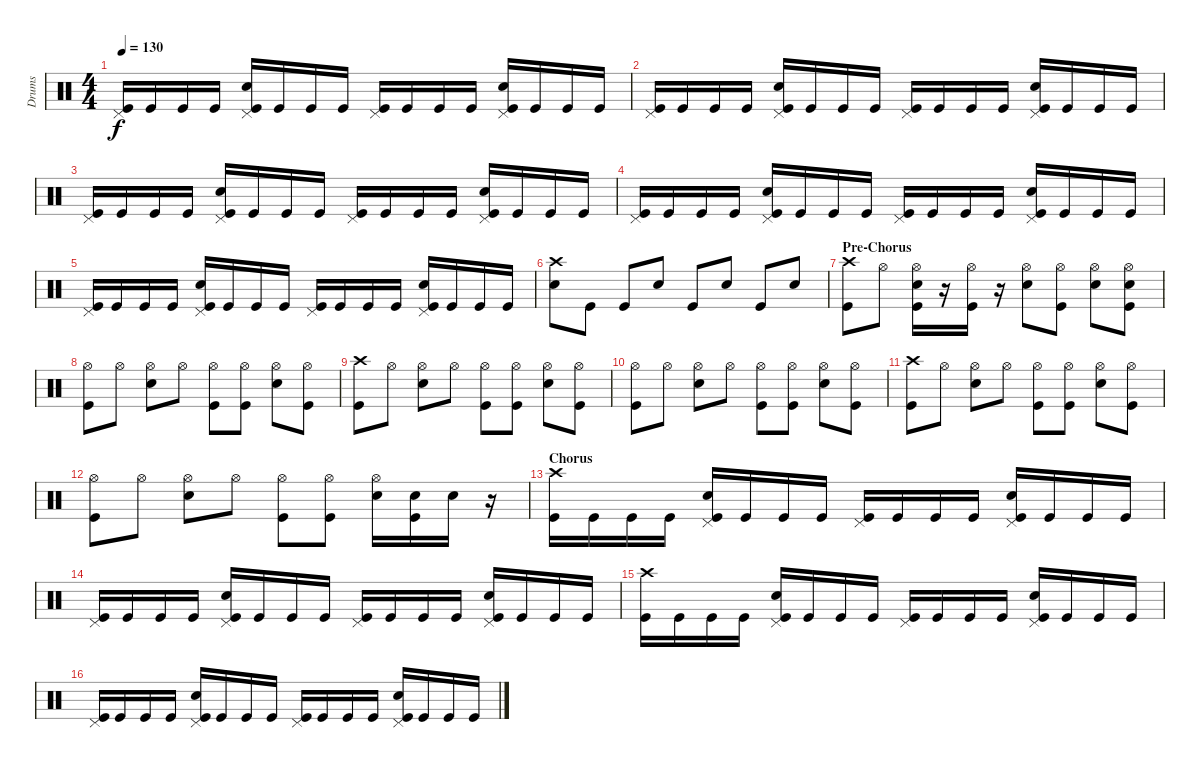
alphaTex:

\track ("Drums" "Drums") {instrument percussion}
\staff {score}
\articulation defaults
\ts (4 4)
\tempo 130
\clef neutral
\ks c
("Pedal Hi-Hat (hit)" "Kick (hit)").16{dy f} "Kick (hit)".16 "Kick (hit)".16 "Kick (hit)".16 ("Pedal Hi-Hat (hit)" "Snare (hit) 2" "Kick (hit)").16 "Kick (hit)".16 "Kick (hit)".16 "Kick (hit)".16 ("Pedal Hi-Hat (hit)" "Kick (hit)").16 "Kick (hit)".16 "Kick (hit)".16 "Kick (hit)".16 ("Pedal Hi-Hat (hit)" "Snare (hit) 2" "Kick (hit)").16 "Kick (hit)".16 "Kick (hit)".16 "Kick (hit)".16 |
("Pedal Hi-Hat (hit)" "Kick (hit)").16 "Kick (hit)".16 "Kick (hit)".16 "Kick (hit)".16 ("Pedal Hi-Hat (hit)" "Snare (hit) 2" "Kick (hit)").16 "Kick (hit)".16 "Kick (hit)".16 "Kick (hit)".16 ("Pedal Hi-Hat (hit)" "Kick (hit)").16 "Kick (hit)".16 "Kick (hit)".16 "Kick (hit)".16 ("Pedal Hi-Hat (hit)" "Snare (hit) 2" "Kick (hit)").16 "Kick (hit)".16 "Kick (hit)".16 "Kick (hit)".16 |
("Pedal Hi-Hat (hit)" "Kick (hit)").16 "Kick (hit)".16 "Kick (hit)".16 "Kick (hit)".16 ("Pedal Hi-Hat (hit)" "Snare (hit) 2" "Kick (hit)").16 "Kick (hit)".16 "Kick (hit)".16 "Kick (hit)".16 ("Pedal Hi-Hat (hit)" "Kick (hit)").16 "Kick (hit)".16 "Kick (hit)".16 "Kick (hit)".16 ("Pedal Hi-Hat (hit)" "Snare (hit) 2" "Kick (hit)").16 "Kick (hit)".16 "Kick (hit)".16 "Kick (hit)".16 |
("Pedal Hi-Hat (hit)" "Kick (hit)").16 "Kick (hit)".16 "Kick (hit)".16 "Kick (hit)".16 ("Pedal Hi-Hat (hit)" "Snare (hit) 2" "Kick (hit)").16 "Kick (hit)".16 "Kick (hit)".16 "Kick (hit)".16 ("Pedal Hi-Hat (hit)" "Kick (hit)").16 "Kick (hit)".16 "Kick (hit)".16 "Kick (hit)".16 ("Pedal Hi-Hat (hit)" "Snare (hit) 2" "Kick (hit)").16 "Kick (hit)".16 "Kick (hit)".16 "Kick (hit)".16 |
("Pedal Hi-Hat (hit)" "Kick (hit)").16 "Kick (hit)".16 "Kick (hit)".16 "Kick (hit)".16 ("Pedal Hi-Hat (hit)" "Snare (hit) 2" "Kick (hit)").16 "Kick (hit)".16 "Kick (hit)".16 "Kick (hit)".16 ("Pedal Hi-Hat (hit)" "Kick (hit)").16 "Kick (hit)".16 "Kick (hit)".16 "Kick (hit)".16 ("Pedal Hi-Hat (hit)" "Snare (hit) 2" "Kick (hit)").16 "Kick (hit)".16 "Kick (hit)".16 "Kick (hit)".16 |
("Crash high (hit)" "Snare (hit) 2").8 "Kick (hit)".8 "Kick (hit)".8 "Snare (hit) 2".8 "Kick (hit)".8 "Snare (hit) 2".8 "Kick (hit)".8 "Snare (hit) 2".8 |
\section ("" "Pre-Chorus")
("Crash high (hit)" "Kick (hit)").8 "Hi-Hat (open)".8 ("Hi-Hat (open)" "Snare (hit) 2" "Kick (hit)").16 r.16 ("Hi-Hat (open)" "Kick (hit)").16 r.16 ("Hi-Hat (open)" "Snare (hit) 2").8 ("Hi-Hat (open)" "Kick (hit)").8 ("Hi-Hat (open)" "Snare (hit) 2").8 ("Hi-Hat (open)" "Snare (hit) 2" "Kick (hit)").8 |
("Hi-Hat (open)" "Kick (hit)").8 "Hi-Hat (open)".8 ("Hi-Hat (open)" "Snare (hit) 2").8 "Hi-Hat (open)".8 ("Hi-Hat (open)" "Kick (hit)").8 ("Hi-Hat (open)" "Kick (hit)").8 ("Hi-Hat (open)" "Snare (hit) 2").8 ("Hi-Hat (open)" "Kick (hit)").8 |
("Crash high (hit)" "Kick (hit)").8 "Hi-Hat (open)".8 ("Hi-Hat (open)" "Snare (hit) 2").8 "Hi-Hat (open)".8 ("Hi-Hat (open)" "Kick (hit)").8 ("Hi-Hat (open)" "Kick (hit)").8 ("Hi-Hat (open)" "Snare (hit) 2").8 ("Hi-Hat (open)" "Kick (hit)").8 |
("Hi-Hat (open)" "Kick (hit)").8 "Hi-Hat (open)".8 ("Hi-Hat (open)" "Snare (hit) 2").8 "Hi-Hat (open)".8 ("Hi-Hat (open)" "Kick (hit)").8 ("Hi-Hat (open)" "Kick (hit)").8 ("Hi-Hat (open)" "Snare (hit) 2").8 ("Hi-Hat (open)" "Kick (hit)").8 |
("Crash high (hit)" "Kick (hit)").8 "Hi-Hat (open)".8 ("Hi-Hat (open)" "Snare (hit) 2").8 "Hi-Hat (open)".8 ("Hi-Hat (open)" "Kick (hit)").8 ("Hi-Hat (open)" "Kick (hit)").8 ("Hi-Hat (open)" "Snare (hit) 2").8 ("Hi-Hat (open)" "Kick (hit)").8 |
("Hi-Hat (open)" "Kick (hit)").8 "Hi-Hat (open)".8 ("Hi-Hat (open)" "Snare (hit) 2").8 "Hi-Hat (open)".8 ("Hi-Hat (open)" "Kick (hit)").8 ("Hi-Hat (open)" "Kick (hit)").8 ("Hi-Hat (open)" "Snare (hit) 2").16 ("Snare (hit) 2" "Kick (hit)").16 "Snare (hit) 2".16 r.16 |
\section ("" "Chorus")
("Crash high (hit)" "Kick (hit)").16 "Kick (hit)".16 "Kick (hit)".16 "Kick (hit)".16 ("Pedal Hi-Hat (hit)" "Snare (hit) 2" "Kick (hit)").16 "Kick (hit)".16 "Kick (hit)".16 "Kick (hit)".16 ("Pedal Hi-Hat (hit)" "Kick (hit)").16 "Kick (hit)".16 "Kick (hit)".16 "Kick (hit)".16 ("Pedal Hi-Hat (hit)" "Snare (hit) 2" "Kick (hit)").16 "Kick (hit)".16 "Kick (hit)".16 "Kick (hit)".16 |
("Pedal Hi-Hat (hit)" "Kick (hit)").16 "Kick (hit)".16 "Kick (hit)".16 "Kick (hit)".16 ("Pedal Hi-Hat (hit)" "Snare (hit) 2" "Kick (hit)").16 "Kick (hit)".16 "Kick (hit)".16 "Kick (hit)".16 ("Pedal Hi-Hat (hit)" "Kick (hit)").16 "Kick (hit)".16 "Kick (hit)".16 "Kick (hit)".16 ("Pedal Hi-Hat (hit)" "Snare (hit) 2" "Kick (hit)").16 "Kick (hit)".16 "Kick (hit)".16 "Kick (hit)".16 |
("Crash high (hit)" "Kick (hit)").16 "Kick (hit)".16 "Kick (hit)".16 "Kick (hit)".16 ("Pedal Hi-Hat (hit)" "Snare (hit) 2" "Kick (hit)").16 "Kick (hit)".16 "Kick (hit)".16 "Kick (hit)".16 ("Pedal Hi-Hat (hit)" "Kick (hit)").16 "Kick (hit)".16 "Kick (hit)".16 "Kick (hit)".16 ("Pedal Hi-Hat (hit)" "Snare (hit) 2" "Kick (hit)").16 "Kick (hit)".16 "Kick (hit)".16 "Kick (hit)".16 |
("Pedal Hi-Hat (hit)" "Kick (hit)").16 "Kick (hit)".16 "Kick (hit)".16 "Kick (hit)".16 ("Pedal Hi-Hat (hit)" "Snare (hit) 2" "Kick (hit)").16 "Kick (hit)".16 "Kick (hit)".16 "Kick (hit)".16 ("Pedal Hi-Hat (hit)" "Kick (hit)").16 "Kick (hit)".16 "Kick (hit)".16 "Kick (hit)".16 ("Pedal Hi-Hat (hit)" "Snare (hit) 2" "Kick (hit)").16 "Kick (hit)".16 "Kick (hit)".16 "Kick (hit)".16
